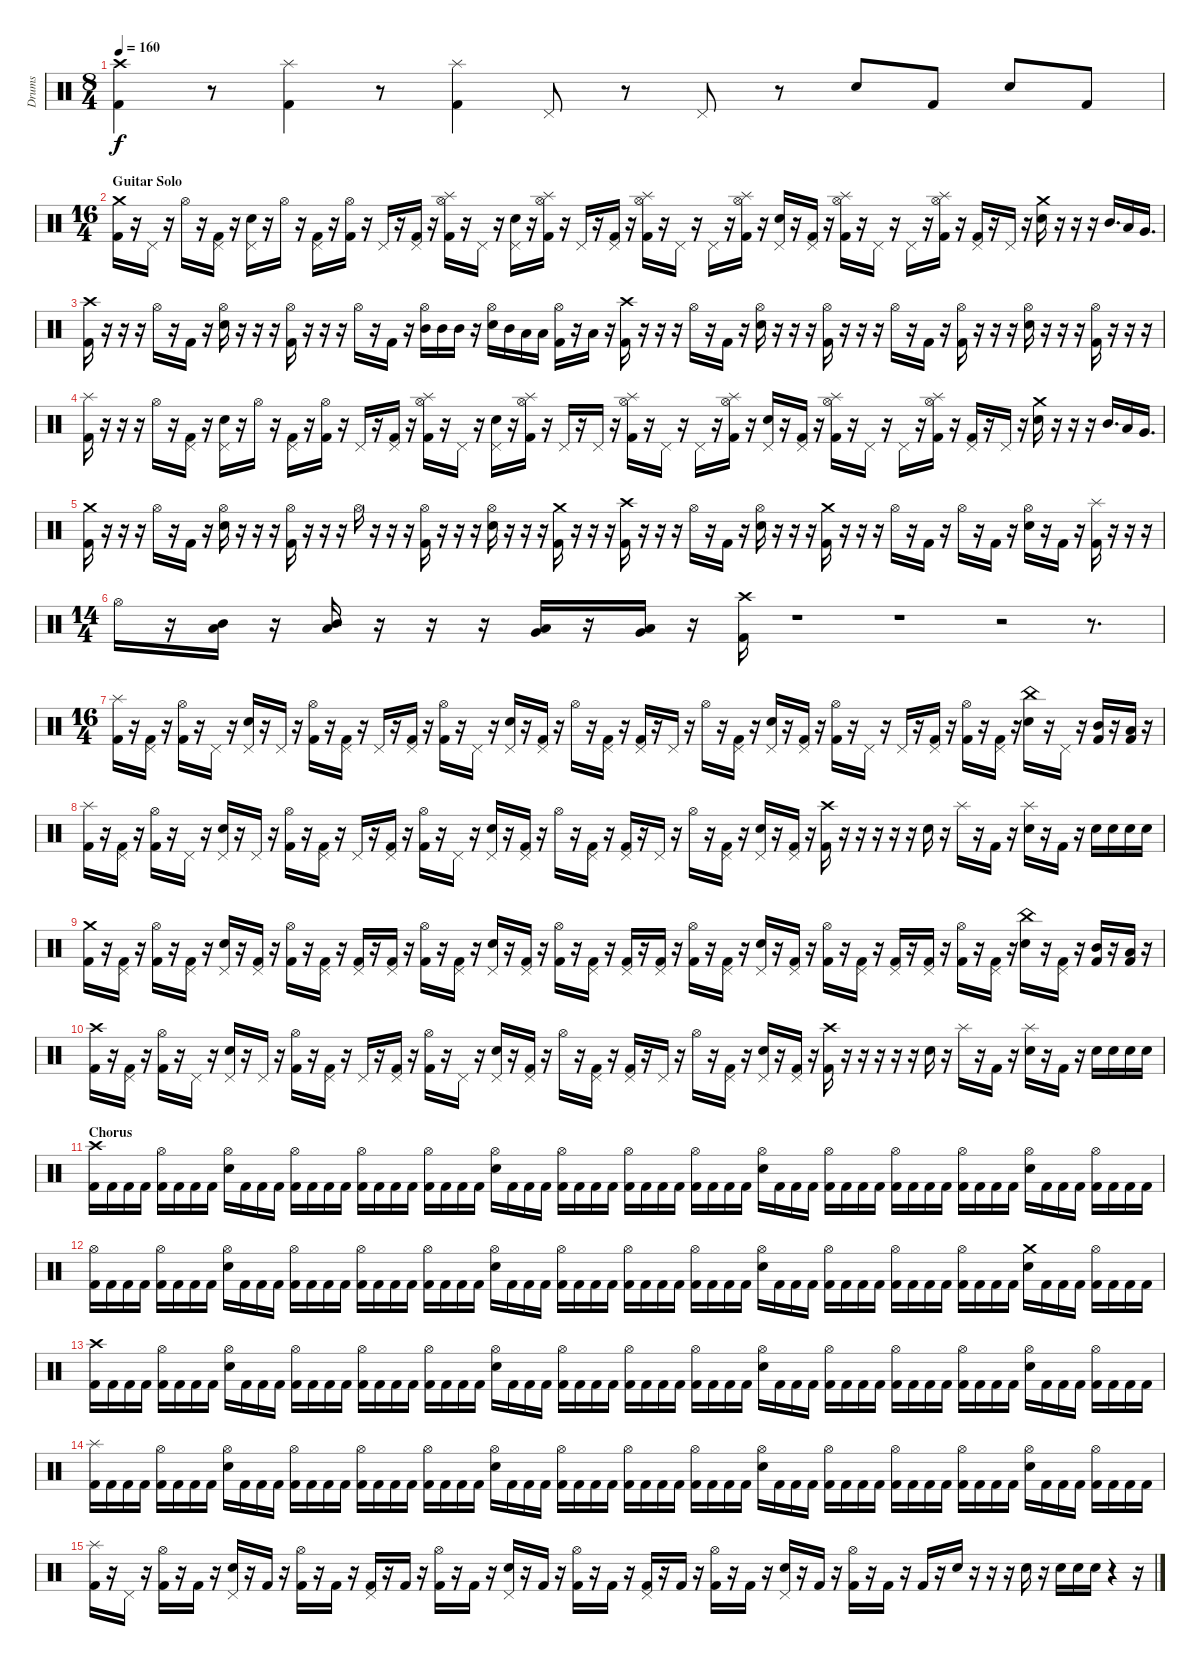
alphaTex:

\track ("Drums" "Drums") {instrument percussion}
\staff {score}
\articulation defaults
\ts (8 4)
\tempo 160
\clef neutral
\ks c
("Crash high (hit)" "Kick (hit) 2").4{dy f} r.8 ("Splash (hit)" "Kick (hit) 2").4 r.8 ("Splash (hit)" "Kick (hit) 2").4 "Pedal Hi-Hat (hit)".8 r.8 "Pedal Hi-Hat (hit)".8 r.8 "Electric Snare (hit)".8 "Kick (hit) 2".8 "Electric Snare (hit)".8 "Kick (hit) 2".8 |
\ts (16 4)
\section ("" "Guitar Solo")
("Crash medium (hit)" "Kick (hit) 2").16 r.16 "Pedal Hi-Hat (hit)".16 r.16 "Hi-Hat (open)".16 r.16 ("Pedal Hi-Hat (hit)" "Kick (hit) 2").16 r.16 ("Pedal Hi-Hat (hit)" "Electric Snare (hit)").16 r.16 "Hi-Hat (open)".16 r.16 ("Pedal Hi-Hat (hit)" "Kick (hit) 2").16 r.16 ("Hi-Hat (open)" "Kick (hit) 2").16 r.16 "Pedal Hi-Hat (hit)".16 r.16 ("Pedal Hi-Hat (hit)" "Kick (hit) 2").16 r.16 ("Hi-Hat (open)" "Splash (hit)" "Kick (hit) 2").16 r.16 "Pedal Hi-Hat (hit)".16 r.16 ("Pedal Hi-Hat (hit)" "Electric Snare (hit)").16 r.16 ("Hi-Hat (open)" "Splash (hit)" "Kick (hit) 2").16 r.16 "Pedal Hi-Hat (hit)".16 r.16 ("Pedal Hi-Hat (hit)" "Kick (hit) 2").16 r.16 ("Hi-Hat (open)" "Splash (hit)" "Kick (hit) 2").16 r.16 "Pedal Hi-Hat (hit)".16 r.16 "Pedal Hi-Hat (hit)".16 r.16 ("Hi-Hat (open)" "Splash (hit)" "Kick (hit) 2").16 r.16 ("Pedal Hi-Hat (hit)" "Electric Snare (hit)").16 r.16 ("Pedal Hi-Hat (hit)" "Kick (hit) 2").16 r.16 ("Hi-Hat (open)" "Splash (hit)" "Kick (hit) 2").16 r.16 "Pedal Hi-Hat (hit)".16 r.16 "Pedal Hi-Hat (hit)".16 r.16 ("Hi-Hat (open)" "Splash (hit)" "Kick (hit) 2").16 r.16 ("Pedal Hi-Hat (hit)" "Kick (hit) 2").16 r.16 "Pedal Hi-Hat (hit)".16 r.16 ("Crash medium (hit)" "Electric Snare (hit)").16 r.16 r.16 r.16 "Mid Tom (hit)".16{d} "Low Tom (hit)".16 "Very Low Tom (hit)".16{d} |
("Crash high (hit)" "Kick (hit) 2").16 r.16 r.16 r.16 "Hi-Hat (open)".16 r.16 "Kick (hit) 2".16 r.16 ("Hi-Hat (open)" "Electric Snare (hit)").16 r.16 r.16 r.16 ("Hi-Hat (open)" "Kick (hit) 2").16 r.16 r.16 r.16 "Hi-Hat (open)".16 r.16 "Kick (hit) 2".16 r.16 ("Hi-Hat (open)" "Mid Tom (hit)").16 "Mid Tom (hit)".16 "Mid Tom (hit)".16 r.16 ("Hi-Hat (open)" "Electric Snare (hit)").16 "Mid Tom (hit)".16 "Low Tom (hit)".16 "Low Tom (hit)".16 ("Hi-Hat (open)" "Kick (hit) 2").16 r.16 "Low Tom (hit)".16 r.16 ("Crash high (hit)" "Kick (hit) 2").16 r.16 r.16 r.16 "Hi-Hat (open)".16 r.16 "Kick (hit) 2".16 r.16 ("Hi-Hat (open)" "Electric Snare (hit)").16 r.16 r.16 r.16 ("Hi-Hat (open)" "Kick (hit) 2").16 r.16 r.16 r.16 "Hi-Hat (open)".16 r.16 "Kick (hit) 2".16 r.16 ("Hi-Hat (open)" "Kick (hit) 2").16 r.16 r.16 r.16 ("Hi-Hat (open)" "Electric Snare (hit)").16 r.16 r.16 r.16 ("Hi-Hat (open)" "Kick (hit) 2").16 r.16 r.16 r.16 |
("Splash (hit)" "Kick (hit) 2").16 r.16 r.16 r.16 "Hi-Hat (open)".16 r.16 ("Pedal Hi-Hat (hit)" "Kick (hit) 2").16 r.16 ("Pedal Hi-Hat (hit)" "Electric Snare (hit)").16 r.16 "Hi-Hat (open)".16 r.16 ("Pedal Hi-Hat (hit)" "Kick (hit) 2").16 r.16 ("Hi-Hat (open)" "Kick (hit) 2").16 r.16 "Pedal Hi-Hat (hit)".16 r.16 ("Pedal Hi-Hat (hit)" "Kick (hit) 2").16 r.16 ("Hi-Hat (open)" "Splash (hit)" "Kick (hit) 2").16 r.16 "Pedal Hi-Hat (hit)".16 r.16 ("Pedal Hi-Hat (hit)" "Electric Snare (hit)").16 r.16 ("Hi-Hat (open)" "Splash (hit)" "Kick (hit) 2").16 r.16 "Pedal Hi-Hat (hit)".16 r.16 "Pedal Hi-Hat (hit)".16 r.16 ("Hi-Hat (open)" "Splash (hit)" "Kick (hit) 2").16 r.16 "Pedal Hi-Hat (hit)".16 r.16 "Pedal Hi-Hat (hit)".16 r.16 ("Hi-Hat (open)" "Splash (hit)" "Kick (hit) 2").16 r.16 ("Pedal Hi-Hat (hit)" "Electric Snare (hit)").16 r.16 ("Pedal Hi-Hat (hit)" "Kick (hit) 2").16 r.16 ("Hi-Hat (open)" "Splash (hit)" "Kick (hit) 2").16 r.16 "Pedal Hi-Hat (hit)".16 r.16 "Pedal Hi-Hat (hit)".16 r.16 ("Hi-Hat (open)" "Splash (hit)" "Kick (hit) 2").16 r.16 ("Pedal Hi-Hat (hit)" "Kick (hit) 2").16 r.16 "Pedal Hi-Hat (hit)".16 r.16 ("Crash medium (hit)" "Electric Snare (hit)").16 r.16 r.16 r.16 "Mid Tom (hit)".16{d} "Low Tom (hit)".16 "Very Low Tom (hit)".16{d} |
("Crash medium (hit)" "Kick (hit) 2").16 r.16 r.16 r.16 "Hi-Hat (open)".16 r.16 "Kick (hit) 2".16 r.16 ("Hi-Hat (open)" "Electric Snare (hit)").16 r.16 r.16 r.16 ("Hi-Hat (open)" "Kick (hit) 2").16 r.16 r.16 r.16 "Hi-Hat (open)".16 r.16 r.16 r.16 ("Hi-Hat (open)" "Kick (hit) 2").16 r.16 r.16 r.16 ("Hi-Hat (open)" "Electric Snare (hit)").16 r.16 r.16 r.16 ("Crash medium (hit)" "Kick (hit) 2").16 r.16 r.16 r.16 ("Crash high (hit)" "Kick (hit) 2").16 r.16 r.16 r.16 "Hi-Hat (open)".16 r.16 "Kick (hit) 2".16 r.16 ("Hi-Hat (open)" "Electric Snare (hit)").16 r.16 r.16 r.16 ("Crash medium (hit)" "Kick (hit) 2").16 r.16 r.16 r.16 "Hi-Hat (open)".16 r.16 "Kick (hit) 2".16 r.16 "Hi-Hat (open)".16 r.16 "Kick (hit) 2".16 r.16 ("Hi-Hat (open)" "Electric Snare (hit)").16 r.16 "Kick (hit) 2".16 r.16 ("Splash (hit)" "Kick (hit) 2").16 r.16 r.16 r.16 |
\ts (14 4)
"Hi-Hat (open)".16 r.16 ("Mid Tom (hit)" "Low Tom (hit)").16 r.16 ("Mid Tom (hit)" "Low Tom (hit)").16 r.16 r.16 r.16 ("Low Tom (hit)" "Very Low Tom (hit)").16 r.16 ("Low Tom (hit)" "Very Low Tom (hit)").16 r.16 ("Crash high (hit)" "Kick (hit) 2").16 r.1 r.1 r.2 r.8{d} |
\ts (16 4)
("Splash (hit)" "Kick (hit) 2").16 r.16 ("Pedal Hi-Hat (hit)" "Kick (hit) 2").16 r.16 ("Hi-Hat (open)" "Kick (hit) 2").16 r.16 "Pedal Hi-Hat (hit)".16 r.16 ("Pedal Hi-Hat (hit)" "Electric Snare (hit)").16 r.16 "Pedal Hi-Hat (hit)".16 r.16 ("Hi-Hat (open)" "Kick (hit) 2").16 r.16 ("Pedal Hi-Hat (hit)" "Kick (hit) 2").16 r.16 "Pedal Hi-Hat (hit)".16 r.16 ("Pedal Hi-Hat (hit)" "Kick (hit) 2").16 r.16 ("Hi-Hat (open)" "Kick (hit) 2").16 r.16 "Pedal Hi-Hat (hit)".16 r.16 ("Pedal Hi-Hat (hit)" "Electric Snare (hit)").16 r.16 ("Pedal Hi-Hat (hit)" "Kick (hit) 2").16 r.16 "Hi-Hat (open)".16 r.16 ("Pedal Hi-Hat (hit)" "Kick (hit) 2").16 r.16 ("Pedal Hi-Hat (hit)" "Kick (hit) 2").16 r.16 "Pedal Hi-Hat (hit)".16 r.16 "Hi-Hat (open)".16 r.16 ("Pedal Hi-Hat (hit)" "Kick (hit) 2").16 r.16 ("Pedal Hi-Hat (hit)" "Electric Snare (hit)").16 r.16 ("Pedal Hi-Hat (hit)" "Kick (hit) 2").16 r.16 ("Hi-Hat (open)" "Kick (hit) 2").16 r.16 "Pedal Hi-Hat (hit)".16 r.16 "Pedal Hi-Hat (hit)".16 r.16 ("Pedal Hi-Hat (hit)" "Kick (hit) 2").16 r.16 ("Hi-Hat (open)" "Kick (hit) 2").16 r.16 ("Pedal Hi-Hat (hit)" "Kick (hit) 2").16 r.16 ("China (hit)" "Electric Snare (hit)").16 r.16 "Pedal Hi-Hat (hit)".16 r.16 ("Mid Tom (hit)" "Kick (hit) 2").16 r.16 ("Low Tom (hit)" "Kick (hit) 2").16 r.16 |
("Splash (hit)" "Kick (hit) 2").16 r.16 ("Pedal Hi-Hat (hit)" "Kick (hit) 2").16 r.16 ("Hi-Hat (open)" "Kick (hit) 2").16 r.16 "Pedal Hi-Hat (hit)".16 r.16 ("Pedal Hi-Hat (hit)" "Electric Snare (hit)").16 r.16 "Pedal Hi-Hat (hit)".16 r.16 ("Hi-Hat (open)" "Kick (hit) 2").16 r.16 ("Pedal Hi-Hat (hit)" "Kick (hit) 2").16 r.16 "Pedal Hi-Hat (hit)".16 r.16 ("Pedal Hi-Hat (hit)" "Kick (hit) 2").16 r.16 ("Hi-Hat (open)" "Kick (hit) 2").16 r.16 "Pedal Hi-Hat (hit)".16 r.16 ("Pedal Hi-Hat (hit)" "Electric Snare (hit)").16 r.16 ("Pedal Hi-Hat (hit)" "Kick (hit) 2").16 r.16 "Hi-Hat (open)".16 r.16 ("Pedal Hi-Hat (hit)" "Kick (hit) 2").16 r.16 ("Pedal Hi-Hat (hit)" "Kick (hit) 2").16 r.16 "Pedal Hi-Hat (hit)".16 r.16 "Hi-Hat (open)".16 r.16 ("Pedal Hi-Hat (hit)" "Kick (hit) 2").16 r.16 ("Pedal Hi-Hat (hit)" "Electric Snare (hit)").16 r.16 ("Pedal Hi-Hat (hit)" "Kick (hit) 2").16 r.16 ("Crash high (hit)" "Kick (hit) 2").16 r.16 r.16 r.16 r.16 r.16 "Electric Snare (hit)".16 r.16 "Splash (hit)".16 r.16 "Kick (hit) 2".16 r.16 ("Splash (hit)" "Electric Snare (hit)").16 r.16 "Kick (hit) 2".16 r.16 "Electric Snare (hit)".16 "Electric Snare (hit)".16 "Electric Snare (hit)".16 "Electric Snare (hit)".16 |
("Crash medium (hit)" "Kick (hit) 2").16 r.16 ("Pedal Hi-Hat (hit)" "Kick (hit) 2").16 r.16 ("Hi-Hat (open)" "Kick (hit) 2").16 r.16 ("Pedal Hi-Hat (hit)" "Kick (hit) 2").16 r.16 ("Pedal Hi-Hat (hit)" "Electric Snare (hit)").16 r.16 ("Pedal Hi-Hat (hit)" "Kick (hit) 2").16 r.16 ("Hi-Hat (open)" "Kick (hit) 2").16 r.16 ("Pedal Hi-Hat (hit)" "Kick (hit) 2").16 r.16 ("Pedal Hi-Hat (hit)" "Kick (hit) 2").16 r.16 ("Pedal Hi-Hat (hit)" "Kick (hit) 2").16 r.16 ("Hi-Hat (open)" "Kick (hit) 2").16 r.16 ("Pedal Hi-Hat (hit)" "Kick (hit) 2").16 r.16 ("Pedal Hi-Hat (hit)" "Electric Snare (hit)").16 r.16 ("Pedal Hi-Hat (hit)" "Kick (hit) 2").16 r.16 ("Hi-Hat (open)" "Kick (hit) 2").16 r.16 ("Pedal Hi-Hat (hit)" "Kick (hit) 2").16 r.16 ("Pedal Hi-Hat (hit)" "Kick (hit) 2").16 r.16 ("Pedal Hi-Hat (hit)" "Kick (hit) 2").16 r.16 ("Hi-Hat (open)" "Kick (hit) 2").16 r.16 ("Pedal Hi-Hat (hit)" "Kick (hit) 2").16 r.16 ("Pedal Hi-Hat (hit)" "Electric Snare (hit)").16 r.16 ("Pedal Hi-Hat (hit)" "Kick (hit) 2").16 r.16 ("Hi-Hat (open)" "Kick (hit) 2").16 r.16 ("Pedal Hi-Hat (hit)" "Kick (hit) 2").16 r.16 ("Pedal Hi-Hat (hit)" "Kick (hit) 2").16 r.16 ("Pedal Hi-Hat (hit)" "Kick (hit) 2").16 r.16 ("Hi-Hat (open)" "Kick (hit) 2").16 r.16 ("Pedal Hi-Hat (hit)" "Kick (hit) 2").16 r.16 ("China (hit)" "Electric Snare (hit)").16 r.16 ("Pedal Hi-Hat (hit)" "Kick (hit) 2").16 r.16 ("Mid Tom (hit)" "Kick (hit) 2").16 r.16 ("Low Tom (hit)" "Kick (hit) 2").16 r.16 |
("Crash high (hit)" "Kick (hit) 2").16 r.16 ("Pedal Hi-Hat (hit)" "Kick (hit) 2").16 r.16 ("Hi-Hat (open)" "Kick (hit) 2").16 r.16 "Pedal Hi-Hat (hit)".16 r.16 ("Pedal Hi-Hat (hit)" "Electric Snare (hit)").16 r.16 "Pedal Hi-Hat (hit)".16 r.16 ("Hi-Hat (open)" "Kick (hit) 2").16 r.16 ("Pedal Hi-Hat (hit)" "Kick (hit) 2").16 r.16 "Pedal Hi-Hat (hit)".16 r.16 ("Pedal Hi-Hat (hit)" "Kick (hit) 2").16 r.16 ("Hi-Hat (open)" "Kick (hit) 2").16 r.16 "Pedal Hi-Hat (hit)".16 r.16 ("Pedal Hi-Hat (hit)" "Electric Snare (hit)").16 r.16 ("Pedal Hi-Hat (hit)" "Kick (hit) 2").16 r.16 "Hi-Hat (open)".16 r.16 ("Pedal Hi-Hat (hit)" "Kick (hit) 2").16 r.16 ("Pedal Hi-Hat (hit)" "Kick (hit) 2").16 r.16 "Pedal Hi-Hat (hit)".16 r.16 "Hi-Hat (open)".16 r.16 ("Pedal Hi-Hat (hit)" "Kick (hit) 2").16 r.16 ("Pedal Hi-Hat (hit)" "Electric Snare (hit)").16 r.16 ("Pedal Hi-Hat (hit)" "Kick (hit) 2").16 r.16 ("Crash high (hit)" "Kick (hit) 2").16 r.16 r.16 r.16 r.16 r.16 "Electric Snare (hit)".16 r.16 "Splash (hit)".16 r.16 "Kick (hit) 2".16 r.16 ("Splash (hit)" "Electric Snare (hit)").16 r.16 "Kick (hit) 2".16 r.16 "Electric Snare (hit)".16 "Electric Snare (hit)".16 "Electric Snare (hit)".16 "Electric Snare (hit)".16 |
\section ("" "Chorus")
("Crash high (hit)" "Kick (hit) 2").16 "Kick (hit) 2".16 "Kick (hit) 2".16 "Kick (hit) 2".16 ("Hi-Hat (open)" "Kick (hit) 2").16 "Kick (hit) 2".16 "Kick (hit) 2".16 "Kick (hit) 2".16 ("Hi-Hat (open)" "Electric Snare (hit)").16 "Kick (hit) 2".16 "Kick (hit) 2".16 "Kick (hit) 2".16 ("Hi-Hat (open)" "Kick (hit) 2").16 "Kick (hit) 2".16 "Kick (hit) 2".16 "Kick (hit) 2".16 ("Hi-Hat (open)" "Kick (hit) 2").16 "Kick (hit) 2".16 "Kick (hit) 2".16 "Kick (hit) 2".16 ("Hi-Hat (open)" "Kick (hit) 2").16 "Kick (hit) 2".16 "Kick (hit) 2".16 "Kick (hit) 2".16 ("Hi-Hat (open)" "Electric Snare (hit)").16 "Kick (hit) 2".16 "Kick (hit) 2".16 "Kick (hit) 2".16 ("Hi-Hat (open)" "Kick (hit) 2").16 "Kick (hit) 2".16 "Kick (hit) 2".16 "Kick (hit) 2".16 ("Hi-Hat (open)" "Kick (hit) 2").16 "Kick (hit) 2".16 "Kick (hit) 2".16 "Kick (hit) 2".16 ("Hi-Hat (open)" "Kick (hit) 2").16 "Kick (hit) 2".16 "Kick (hit) 2".16 "Kick (hit) 2".16 ("Hi-Hat (open)" "Electric Snare (hit)").16 "Kick (hit) 2".16 "Kick (hit) 2".16 "Kick (hit) 2".16 ("Hi-Hat (open)" "Kick (hit) 2").16 "Kick (hit) 2".16 "Kick (hit) 2".16 "Kick (hit) 2".16 ("Hi-Hat (open)" "Kick (hit) 2").16 "Kick (hit) 2".16 "Kick (hit) 2".16 "Kick (hit) 2".16 ("Hi-Hat (open)" "Kick (hit) 2").16 "Kick (hit) 2".16 "Kick (hit) 2".16 "Kick (hit) 2".16 ("Hi-Hat (open)" "Electric Snare (hit)").16 "Kick (hit) 2".16 "Kick (hit) 2".16 "Kick (hit) 2".16 ("Hi-Hat (open)" "Kick (hit) 2").16 "Kick (hit) 2".16 "Kick (hit) 2".16 "Kick (hit) 2".16 |
("Hi-Hat (open)" "Kick (hit) 2").16 "Kick (hit) 2".16 "Kick (hit) 2".16 "Kick (hit) 2".16 ("Hi-Hat (open)" "Kick (hit) 2").16 "Kick (hit) 2".16 "Kick (hit) 2".16 "Kick (hit) 2".16 ("Hi-Hat (open)" "Electric Snare (hit)").16 "Kick (hit) 2".16 "Kick (hit) 2".16 "Kick (hit) 2".16 ("Hi-Hat (open)" "Kick (hit) 2").16 "Kick (hit) 2".16 "Kick (hit) 2".16 "Kick (hit) 2".16 ("Hi-Hat (open)" "Kick (hit) 2").16 "Kick (hit) 2".16 "Kick (hit) 2".16 "Kick (hit) 2".16 ("Hi-Hat (open)" "Kick (hit) 2").16 "Kick (hit) 2".16 "Kick (hit) 2".16 "Kick (hit) 2".16 ("Hi-Hat (open)" "Electric Snare (hit)").16 "Kick (hit) 2".16 "Kick (hit) 2".16 "Kick (hit) 2".16 ("Hi-Hat (open)" "Kick (hit) 2").16 "Kick (hit) 2".16 "Kick (hit) 2".16 "Kick (hit) 2".16 ("Hi-Hat (open)" "Kick (hit) 2").16 "Kick (hit) 2".16 "Kick (hit) 2".16 "Kick (hit) 2".16 ("Hi-Hat (open)" "Kick (hit) 2").16 "Kick (hit) 2".16 "Kick (hit) 2".16 "Kick (hit) 2".16 ("Hi-Hat (open)" "Electric Snare (hit)").16 "Kick (hit) 2".16 "Kick (hit) 2".16 "Kick (hit) 2".16 ("Hi-Hat (open)" "Kick (hit) 2").16 "Kick (hit) 2".16 "Kick (hit) 2".16 "Kick (hit) 2".16 ("Hi-Hat (open)" "Kick (hit) 2").16 "Kick (hit) 2".16 "Kick (hit) 2".16 "Kick (hit) 2".16 ("Hi-Hat (open)" "Kick (hit) 2").16 "Kick (hit) 2".16 "Kick (hit) 2".16 "Kick (hit) 2".16 ("Crash medium (hit)" "Electric Snare (hit)").16 "Kick (hit) 2".16 "Kick (hit) 2".16 "Kick (hit) 2".16 ("Hi-Hat (open)" "Kick (hit) 2").16 "Kick (hit) 2".16 "Kick (hit) 2".16 "Kick (hit) 2".16 |
("Crash high (hit)" "Kick (hit) 2").16 "Kick (hit) 2".16 "Kick (hit) 2".16 "Kick (hit) 2".16 ("Hi-Hat (open)" "Kick (hit) 2").16 "Kick (hit) 2".16 "Kick (hit) 2".16 "Kick (hit) 2".16 ("Hi-Hat (open)" "Electric Snare (hit)").16 "Kick (hit) 2".16 "Kick (hit) 2".16 "Kick (hit) 2".16 ("Hi-Hat (open)" "Kick (hit) 2").16 "Kick (hit) 2".16 "Kick (hit) 2".16 "Kick (hit) 2".16 ("Hi-Hat (open)" "Kick (hit) 2").16 "Kick (hit) 2".16 "Kick (hit) 2".16 "Kick (hit) 2".16 ("Hi-Hat (open)" "Kick (hit) 2").16 "Kick (hit) 2".16 "Kick (hit) 2".16 "Kick (hit) 2".16 ("Hi-Hat (open)" "Electric Snare (hit)").16 "Kick (hit) 2".16 "Kick (hit) 2".16 "Kick (hit) 2".16 ("Hi-Hat (open)" "Kick (hit) 2").16 "Kick (hit) 2".16 "Kick (hit) 2".16 "Kick (hit) 2".16 ("Hi-Hat (open)" "Kick (hit) 2").16 "Kick (hit) 2".16 "Kick (hit) 2".16 "Kick (hit) 2".16 ("Hi-Hat (open)" "Kick (hit) 2").16 "Kick (hit) 2".16 "Kick (hit) 2".16 "Kick (hit) 2".16 ("Hi-Hat (open)" "Electric Snare (hit)").16 "Kick (hit) 2".16 "Kick (hit) 2".16 "Kick (hit) 2".16 ("Hi-Hat (open)" "Kick (hit) 2").16 "Kick (hit) 2".16 "Kick (hit) 2".16 "Kick (hit) 2".16 ("Hi-Hat (open)" "Kick (hit) 2").16 "Kick (hit) 2".16 "Kick (hit) 2".16 "Kick (hit) 2".16 ("Hi-Hat (open)" "Kick (hit) 2").16 "Kick (hit) 2".16 "Kick (hit) 2".16 "Kick (hit) 2".16 ("Hi-Hat (open)" "Electric Snare (hit)").16 "Kick (hit) 2".16 "Kick (hit) 2".16 "Kick (hit) 2".16 ("Hi-Hat (open)" "Kick (hit) 2").16 "Kick (hit) 2".16 "Kick (hit) 2".16 "Kick (hit) 2".16 |
("Splash (hit)" "Kick (hit) 2").16 "Kick (hit) 2".16 "Kick (hit) 2".16 "Kick (hit) 2".16 ("Hi-Hat (open)" "Kick (hit) 2").16 "Kick (hit) 2".16 "Kick (hit) 2".16 "Kick (hit) 2".16 ("Hi-Hat (open)" "Electric Snare (hit)").16 "Kick (hit) 2".16 "Kick (hit) 2".16 "Kick (hit) 2".16 ("Hi-Hat (open)" "Kick (hit) 2").16 "Kick (hit) 2".16 "Kick (hit) 2".16 "Kick (hit) 2".16 ("Hi-Hat (open)" "Kick (hit) 2").16 "Kick (hit) 2".16 "Kick (hit) 2".16 "Kick (hit) 2".16 ("Hi-Hat (open)" "Kick (hit) 2").16 "Kick (hit) 2".16 "Kick (hit) 2".16 "Kick (hit) 2".16 ("Hi-Hat (open)" "Electric Snare (hit)").16 "Kick (hit) 2".16 "Kick (hit) 2".16 "Kick (hit) 2".16 ("Hi-Hat (open)" "Kick (hit) 2").16 "Kick (hit) 2".16 "Kick (hit) 2".16 "Kick (hit) 2".16 ("Hi-Hat (open)" "Kick (hit) 2").16 "Kick (hit) 2".16 "Kick (hit) 2".16 "Kick (hit) 2".16 ("Hi-Hat (open)" "Kick (hit) 2").16 "Kick (hit) 2".16 "Kick (hit) 2".16 "Kick (hit) 2".16 ("Hi-Hat (open)" "Electric Snare (hit)").16 "Kick (hit) 2".16 "Kick (hit) 2".16 "Kick (hit) 2".16 ("Hi-Hat (open)" "Kick (hit) 2").16 "Kick (hit) 2".16 "Kick (hit) 2".16 "Kick (hit) 2".16 ("Hi-Hat (open)" "Kick (hit) 2").16 "Kick (hit) 2".16 "Kick (hit) 2".16 "Kick (hit) 2".16 ("Hi-Hat (open)" "Kick (hit) 2").16 "Kick (hit) 2".16 "Kick (hit) 2".16 "Kick (hit) 2".16 ("Hi-Hat (open)" "Electric Snare (hit)").16 "Kick (hit) 2".16 "Kick (hit) 2".16 "Kick (hit) 2".16 ("Hi-Hat (open)" "Kick (hit) 2").16 "Kick (hit) 2".16 "Kick (hit) 2".16 "Kick (hit) 2".16 |
("Splash (hit)" "Kick (hit) 2").16 r.16 "Pedal Hi-Hat (hit)".16 r.16 ("Hi-Hat (open)" "Kick (hit) 2").16 r.16 "Kick (hit) 2".16 r.16 ("Pedal Hi-Hat (hit)" "Electric Snare (hit)").16 r.16 "Kick (hit) 2".16 r.16 ("Hi-Hat (open)" "Kick (hit) 2").16 r.16 "Kick (hit) 2".16 r.16 ("Pedal Hi-Hat (hit)" "Kick (hit) 2").16 r.16 "Kick (hit) 2".16 r.16 ("Hi-Hat (open)" "Kick (hit) 2").16 r.16 "Kick (hit) 2".16 r.16 ("Pedal Hi-Hat (hit)" "Electric Snare (hit)").16 r.16 "Kick (hit) 2".16 r.16 ("Hi-Hat (open)" "Kick (hit) 2").16 r.16 "Kick (hit) 2".16 r.16 ("Pedal Hi-Hat (hit)" "Kick (hit) 2").16 r.16 "Kick (hit) 2".16 r.16 ("Hi-Hat (open)" "Kick (hit) 2").16 r.16 "Kick (hit) 2".16 r.16 ("Pedal Hi-Hat (hit)" "Electric Snare (hit)").16 r.16 "Kick (hit) 2".16 r.16 ("Hi-Hat (open)" "Kick (hit) 2").16 r.16 "Kick (hit) 2".16 r.16 "Kick (hit) 2".16 r.16 "Electric Snare (hit)".16 r.16 r.16 r.16 "Electric Snare (hit)".16 r.16 "Electric Snare (hit)".16 "Electric Snare (hit)".16 "Electric Snare (hit)".16 r.4 r.16
